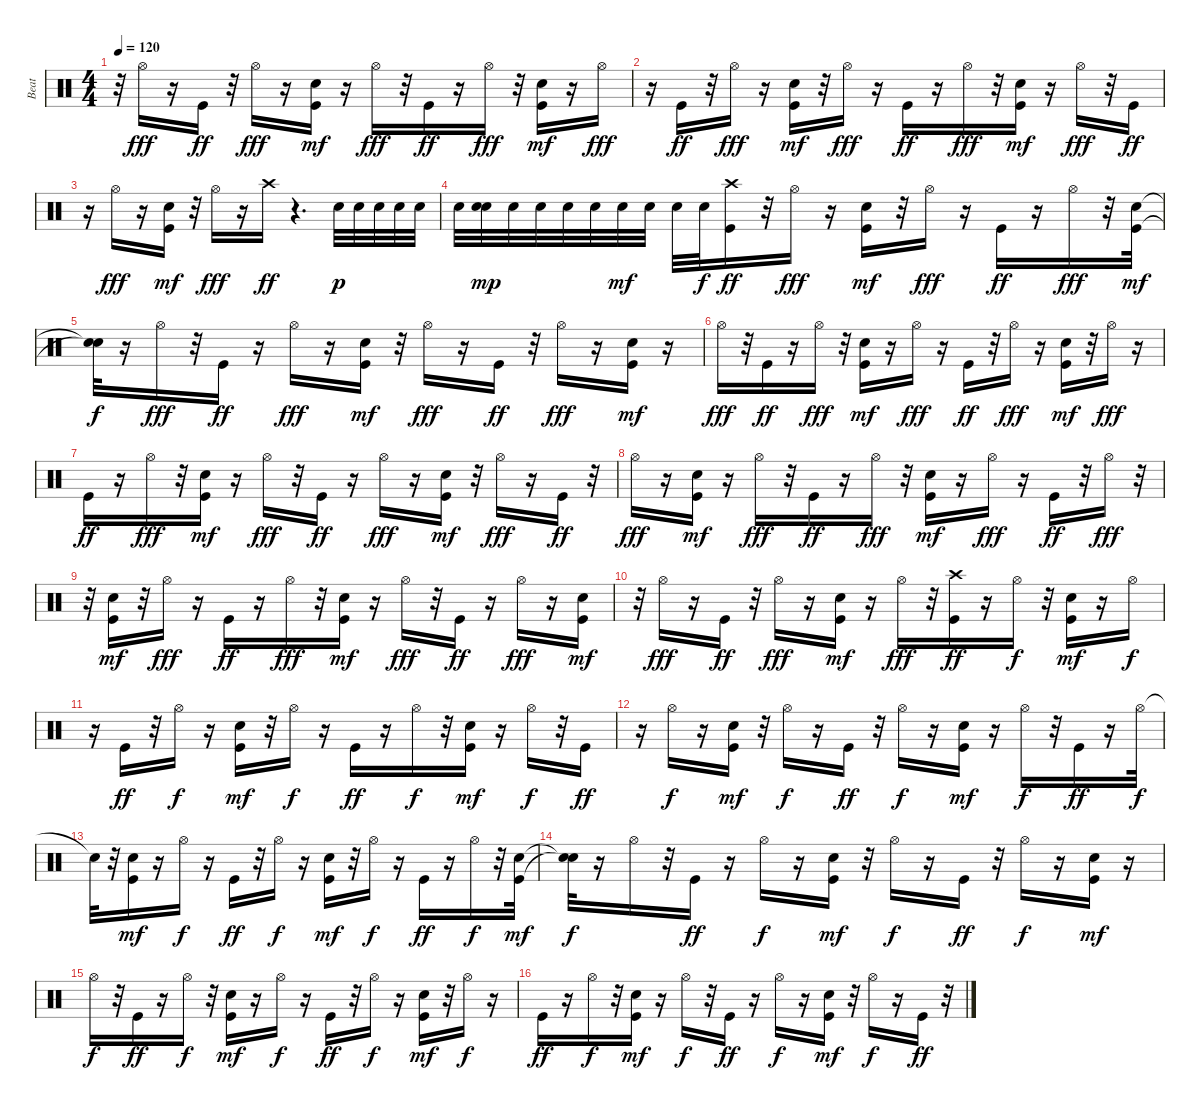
\track ("Beat" "Beat") {instrument percussion}
\staff {score}
\articulation defaults
\ts (4 4)
\tempo 120
\clef neutral
\ks c
r.32{dy mf} "Hi-Hat (open)".16{dy fff} r.16 "Kick (hit)".16{dy ff} r.32 "Hi-Hat (open)".16{dy fff} r.16 ("Kick (hit)" "Hand Clap (hit)").16{dy mf} r.16 "Hi-Hat (open)".16{dy fff} r.32 "Kick (hit)".16{dy ff} r.16 "Hi-Hat (open)".16{dy fff} r.32 ("Kick (hit)" "Hand Clap (hit)").16{dy mf} r.16 "Hi-Hat (open)".16{dy fff} |
r.16 "Kick (hit)".16{dy ff} r.32 "Hi-Hat (open)".16{dy fff} r.16 ("Kick (hit)" "Hand Clap (hit)").16{dy mf} r.32 "Hi-Hat (open)".16{dy fff} r.16 "Kick (hit)".16{dy ff} r.16 "Hi-Hat (open)".16{dy fff} r.32 ("Kick (hit)" "Hand Clap (hit)").16{dy mf} r.16 "Hi-Hat (open)".16{dy fff} r.32 "Kick (hit)".16{dy ff} |
r.16 "Hi-Hat (open)".16{dy fff} r.16 ("Kick (hit)" "Hand Clap (hit)").16{dy mf} r.32 "Hi-Hat (open)".16{dy fff} r.16 "Crash high (hit)".16{dy ff} r.4{d} "Snare (hit) 2".32{dy p} "Snare (hit) 2".32 "Snare (hit) 2".32 "Snare (hit) 2".32 "Snare (hit) 2".32 |
"Snare (hit) 2".32 ("Snare (hit) 2" "Snare (hit) 2").32{dy mp} "Snare (hit) 2".32 "Snare (hit) 2".32 "Snare (hit) 2".32 "Snare (hit) 2".32 "Snare (hit) 2".32{dy mf} "Snare (hit) 2".32 "Snare (hit) 2".32 "Snare (hit) 2".32{dy f} ("Crash high (hit)" "Kick (hit)").16{dy ff} r.32 "Hi-Hat (open)".16{dy fff} r.16 ("Kick (hit)" "Hand Clap (hit)").16{dy mf} r.32 "Hi-Hat (open)".16{dy fff} r.16 "Kick (hit)".16{dy ff} r.16 "Hi-Hat (open)".16{dy fff} r.32 ("Kick (hit)" "Hand Clap (hit)").32{dy mf} |
("Snare (hit)"{t} "Snare (hit)"{t}).32{dy f} r.16 "Hi-Hat (open)".16{dy fff} r.32 "Kick (hit)".16{dy ff} r.16 "Hi-Hat (open)".16{dy fff} r.16 ("Kick (hit)" "Hand Clap (hit)").16{dy mf} r.32 "Hi-Hat (open)".16{dy fff} r.16 "Kick (hit)".16{dy ff} r.32 "Hi-Hat (open)".16{dy fff} r.16 ("Kick (hit)" "Hand Clap (hit)").16{dy mf} r.16 |
"Hi-Hat (open)".16{dy fff} r.32 "Kick (hit)".16{dy ff} r.16 "Hi-Hat (open)".16{dy fff} r.32 ("Kick (hit)" "Hand Clap (hit)").16{dy mf} r.16 "Hi-Hat (open)".16{dy fff} r.16 "Kick (hit)".16{dy ff} r.32 "Hi-Hat (open)".16{dy fff} r.16 ("Kick (hit)" "Hand Clap (hit)").16{dy mf} r.32 "Hi-Hat (open)".16{dy fff} r.16 |
"Kick (hit)".16{dy ff} r.16 "Hi-Hat (open)".16{dy fff} r.32 ("Kick (hit)" "Hand Clap (hit)").16{dy mf} r.16 "Hi-Hat (open)".16{dy fff} r.32 "Kick (hit)".16{dy ff} r.16 "Hi-Hat (open)".16{dy fff} r.16 ("Kick (hit)" "Hand Clap (hit)").16{dy mf} r.32 "Hi-Hat (open)".16{dy fff} r.16 "Kick (hit)".16{dy ff} r.32 |
"Hi-Hat (open)".16{dy fff} r.16 ("Kick (hit)" "Hand Clap (hit)").16{dy mf} r.16 "Hi-Hat (open)".16{dy fff} r.32 "Kick (hit)".16{dy ff} r.16 "Hi-Hat (open)".16{dy fff} r.32 ("Kick (hit)" "Hand Clap (hit)").16{dy mf} r.16 "Hi-Hat (open)".16{dy fff} r.16 "Kick (hit)".16{dy ff} r.32 "Hi-Hat (open)".16{dy fff} r.32 |
r.32 ("Kick (hit)" "Hand Clap (hit)").16{dy mf} r.32 "Hi-Hat (open)".16{dy fff} r.16 "Kick (hit)".16{dy ff} r.16 "Hi-Hat (open)".16{dy fff} r.32 ("Kick (hit)" "Hand Clap (hit)").16{dy mf} r.16 "Hi-Hat (open)".16{dy fff} r.32 "Kick (hit)".16{dy ff} r.16 "Hi-Hat (open)".16{dy fff} r.16 ("Kick (hit)" "Hand Clap (hit)").16{dy mf} |
r.32 "Hi-Hat (open)".16{dy fff} r.16 "Kick (hit)".16{dy ff} r.32 "Hi-Hat (open)".16{dy fff} r.16 ("Kick (hit)" "Hand Clap (hit)").16{dy mf} r.16 "Hi-Hat (open)".16{dy fff} r.32 ("Kick (hit)" "Crash high (hit)").16{dy ff} r.16 "Hi-Hat (open)".16{dy f} r.32 ("Kick (hit)" "Hand Clap (hit)").16{dy mf} r.16 "Hi-Hat (open)".16{dy f} |
r.16 "Kick (hit)".16{dy ff} r.32 "Hi-Hat (open)".16{dy f} r.16 ("Kick (hit)" "Hand Clap (hit)").16{dy mf} r.32 "Hi-Hat (open)".16{dy f} r.16 "Kick (hit)".16{dy ff} r.16 "Hi-Hat (open)".16{dy f} r.32 ("Kick (hit)" "Hand Clap (hit)").16{dy mf} r.16 "Hi-Hat (open)".16{dy f} r.32 "Kick (hit)".16{dy ff} |
r.16 "Hi-Hat (open)".16{dy f} r.16 ("Kick (hit)" "Hand Clap (hit)").16{dy mf} r.32 "Hi-Hat (open)".16{dy f} r.16 "Kick (hit)".16{dy ff} r.32 "Hi-Hat (open)".16{dy f} r.16 ("Kick (hit)" "Hand Clap (hit)").16{dy mf} r.16 "Hi-Hat (open)".16{dy f} r.32 "Kick (hit)".16{dy ff} r.16 "Hi-Hat (open)".32{dy f} |
"Snare (hit)"{t}.32 r.32 ("Kick (hit)" "Hand Clap (hit)").16{dy mf} r.16 "Hi-Hat (open)".16{dy f} r.16 "Kick (hit)".16{dy ff} r.32 "Hi-Hat (open)".16{dy f} r.16 ("Kick (hit)" "Hand Clap (hit)").16{dy mf} r.32 "Hi-Hat (open)".16{dy f} r.16 "Kick (hit)".16{dy ff} r.16 "Hi-Hat (open)".16{dy f} r.32 ("Kick (hit)" "Hand Clap (hit)").32{dy mf} |
("Snare (hit)"{t} "Snare (hit)"{t}).32{dy f} r.16 "Hi-Hat (open)".16 r.32 "Kick (hit)".16{dy ff} r.16 "Hi-Hat (open)".16{dy f} r.16 ("Kick (hit)" "Hand Clap (hit)").16{dy mf} r.32 "Hi-Hat (open)".16{dy f} r.16 "Kick (hit)".16{dy ff} r.32 "Hi-Hat (open)".16{dy f} r.16 ("Kick (hit)" "Hand Clap (hit)").16{dy mf} r.16 |
"Hi-Hat (open)".16{dy f} r.32 "Kick (hit)".16{dy ff} r.16 "Hi-Hat (open)".16{dy f} r.32 ("Kick (hit)" "Hand Clap (hit)").16{dy mf} r.16 "Hi-Hat (open)".16{dy f} r.16 "Kick (hit)".16{dy ff} r.32 "Hi-Hat (open)".16{dy f} r.16 ("Kick (hit)" "Hand Clap (hit)").16{dy mf} r.32 "Hi-Hat (open)".16{dy f} r.16 |
"Kick (hit)".16{dy ff} r.16 "Hi-Hat (open)".16{dy f} r.32 ("Kick (hit)" "Hand Clap (hit)").16{dy mf} r.16 "Hi-Hat (open)".16{dy f} r.32 "Kick (hit)".16{dy ff} r.16 "Hi-Hat (open)".16{dy f} r.16 ("Kick (hit)" "Hand Clap (hit)").16{dy mf} r.32 "Hi-Hat (open)".16{dy f} r.16 "Kick (hit)".16{dy ff} r.32
